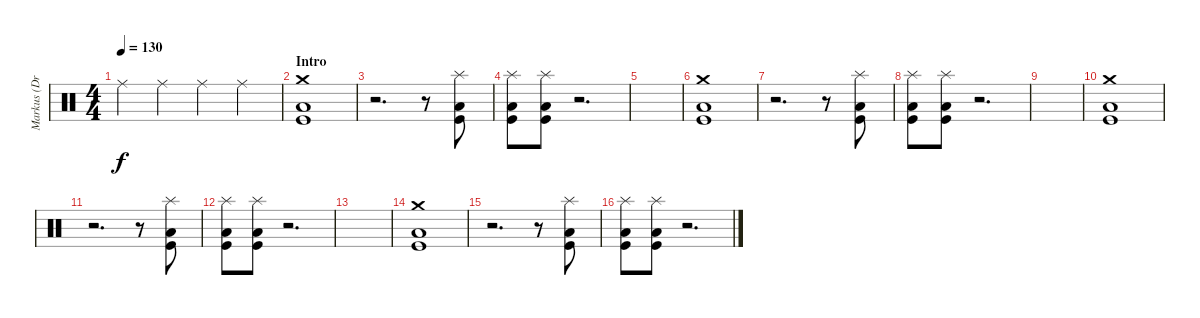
\track ("Markus (Drums)" "Markus (Dr") {instrument percussion}
\staff {score}
\articulation defaults
\ts (4 4)
\tempo 130
\clef neutral
\ks c "Ride (middle)".4{dy f} "Ride (middle)".4 "Ride (middle)".4 "Ride (middle)".4
|
\section ("" "Intro")
("Crash medium (hit)" "Low Floor Tom (hit)" "Kick (hit)").1 |
r.2{d} r.8 ("Splash (hit)" "Low Floor Tom (hit)" "Kick (hit)").8 |
("Splash (hit)" "Low Floor Tom (hit)" "Kick (hit)").8 ("Splash (hit)" "Low Floor Tom (hit)" "Kick (hit)").8 r.2{d} |
|
("Crash medium (hit)" "Low Floor Tom (hit)" "Kick (hit)").1 |
r.2{d} r.8 ("Splash (hit)" "Low Floor Tom (hit)" "Kick (hit)").8 |
("Splash (hit)" "Low Floor Tom (hit)" "Kick (hit)").8 ("Splash (hit)" "Low Floor Tom (hit)" "Kick (hit)").8 r.2{d} |
|
\section ("" "")
("Crash medium (hit)" "Low Floor Tom (hit)" "Kick (hit)").1 |
r.2{d} r.8 ("Splash (hit)" "Low Floor Tom (hit)" "Kick (hit)").8 |
("Splash (hit)" "Low Floor Tom (hit)" "Kick (hit)").8 ("Splash (hit)" "Low Floor Tom (hit)" "Kick (hit)").8 r.2{d} |
|
("Crash medium (hit)" "Low Floor Tom (hit)" "Kick (hit)").1 |
r.2{d} r.8 ("Splash (hit)" "Low Floor Tom (hit)" "Kick (hit)").8 |
("Splash (hit)" "Low Floor Tom (hit)" "Kick (hit)").8 ("Splash (hit)" "Low Floor Tom (hit)" "Kick (hit)").8 r.2{d}
